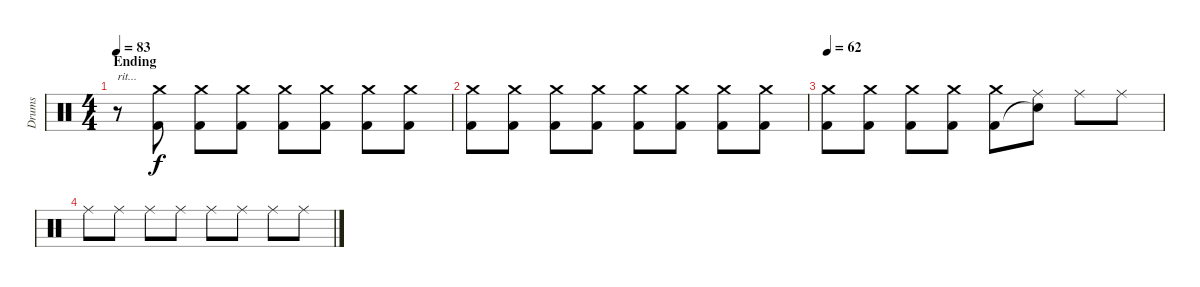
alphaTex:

\track ("Drums" "Drums") {instrument percussion}
\staff {score}
\articulation defaults
\ts (4 4)
\section ("" "Ending")
\tempo 83
\clef neutral
\ks c
r.8{txt "rit..." dy f} ("Crash medium (hit)" "Kick (hit) 2").8 ("Crash medium (hit)" "Kick (hit) 2").8 ("Crash medium (hit)" "Kick (hit) 2").8 ("Crash medium (hit)" "Kick (hit) 2").8 ("Crash medium (hit)" "Kick (hit) 2").8 ("Crash medium (hit)" "Kick (hit) 2").8 ("Crash medium (hit)" "Kick (hit) 2").8 |
("Crash medium (hit)" "Kick (hit) 2").8 ("Crash medium (hit)" "Kick (hit) 2").8 ("Crash medium (hit)" "Kick (hit) 2").8 ("Crash medium (hit)" "Kick (hit) 2").8 ("Crash medium (hit)" "Kick (hit) 2").8 ("Crash medium (hit)" "Kick (hit) 2").8 ("Crash medium (hit)" "Kick (hit) 2").8 ("Crash medium (hit)" "Kick (hit) 2").8 |
\tempo 62
("Crash medium (hit)" "Kick (hit) 2").8 ("Crash medium (hit)" "Kick (hit) 2").8 ("Crash medium (hit)" "Kick (hit) 2").8 ("Crash medium (hit)" "Kick (hit) 2").8 ("Crash medium (hit)" "Kick (hit) 2").8 ("Ride (middle)" "Snare (hit)"{t}).8 "Ride (middle)".8 "Ride (middle)".8 |
"Ride (middle)".8 "Ride (middle)".8 "Ride (middle)".8 "Ride (middle)".8 "Ride (middle)".8 "Ride (middle)".8 "Ride (middle)".8 "Ride (middle)".8
